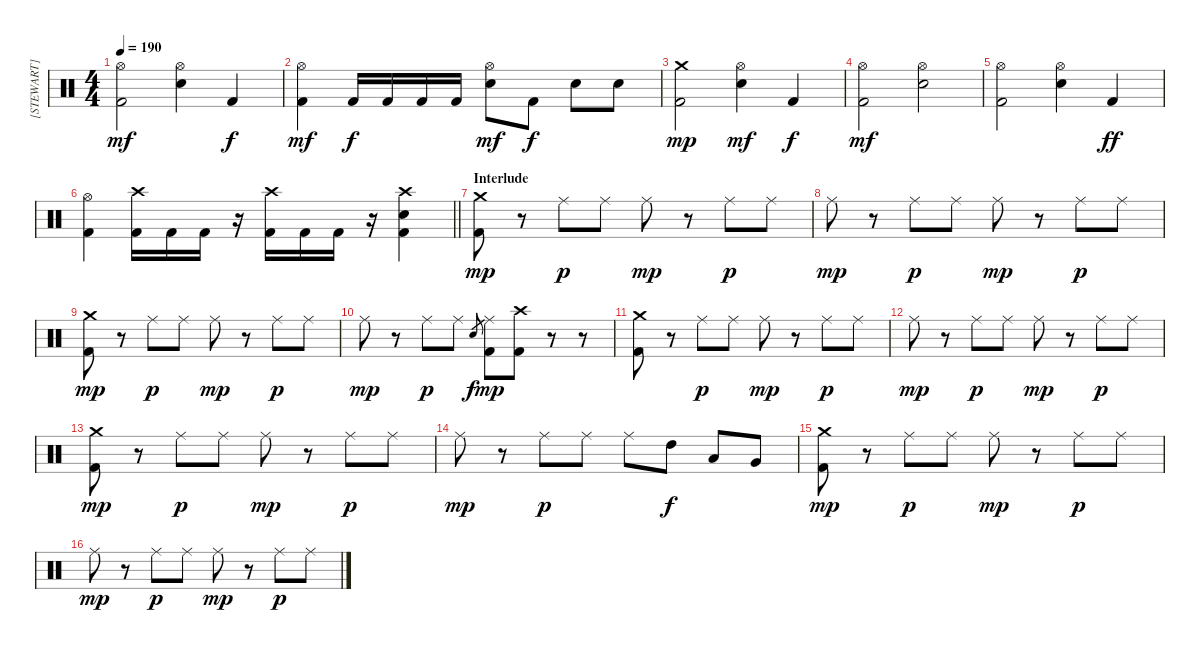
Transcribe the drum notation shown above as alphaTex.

\track ("[STEWART]" "[STEWART]") {instrument percussion}
\staff {score}
\articulation defaults
\ts (4 4)
\tempo 190
\clef neutral
\ks c
("Hi-Hat (open)" "Kick (hit) 2").2{dy mf} ("Hi-Hat (open)" "Electric Snare (hit)").4 "Kick (hit) 2".4{dy f} |
("Hi-Hat (open)" "Kick (hit) 2").4{dy mf} "Kick (hit) 2".16{dy f} "Kick (hit) 2".16 "Kick (hit) 2".16 "Kick (hit) 2".16 ("Hi-Hat (open)" "Electric Snare (hit)").8{dy mf} "Kick (hit) 2".8{dy f} "Electric Snare (hit)".8 "Electric Snare (hit)".8 |
("Crash medium (hit)" "Kick (hit) 2").2{dy mp} ("Hi-Hat (open)" "Electric Snare (hit)").4{dy mf} "Kick (hit) 2".4{dy f} |
("Hi-Hat (open)" "Kick (hit) 2").2{dy mf} ("Hi-Hat (open)" "Electric Snare (hit)").2 |
("Hi-Hat (open)" "Kick (hit) 2").2 ("Hi-Hat (open)" "Electric Snare (hit)").4 "Kick (hit) 2".4{dy ff} |
\barLineRight lightlight
("Hi-Hat (open)" "Kick (hit) 2").4 ("Crash high (hit)" "Kick (hit) 2").16 "Kick (hit) 2".16 "Kick (hit) 2".16 r.16 ("Crash high (hit)" "Kick (hit) 2").16 "Kick (hit) 2".16 "Kick (hit) 2".16 r.16 ("Crash high (hit)" "Electric Snare (hit)" "Kick (hit) 2").4 |
\section ("" "Interlude")
("Crash medium (hit)" "Kick (hit) 2").8{dy mp} r.8 "Ride (middle)".8{dy p} "Ride (middle)".8 "Ride (middle)".8{dy mp} r.8 "Ride (middle)".8{dy p} "Ride (middle)".8 |
"Ride (middle)".8{dy mp} r.8 "Ride (middle)".8{dy p} "Ride (middle)".8 "Ride (middle)".8{dy mp} r.8 "Ride (middle)".8{dy p} "Ride (middle)".8 |
("Crash medium (hit)" "Kick (hit) 2").8{dy mp} r.8 "Ride (middle)".8{dy p} "Ride (middle)".8 "Ride (middle)".8{dy mp} r.8 "Ride (middle)".8{dy p} "Ride (middle)".8 |
"Ride (middle)".8{dy mp} r.8 "Ride (middle)".8{dy p} "Ride (middle)".8 "Electric Snare (hit)".8{gr dy f} ("Ride (middle)" "Kick (hit) 2").8{dy mp} ("Crash high (hit)" "Kick (hit) 2").8 r.8 r.8 |
("Crash medium (hit)" "Kick (hit) 2").8 r.8 "Ride (middle)".8{dy p} "Ride (middle)".8 "Ride (middle)".8{dy mp} r.8 "Ride (middle)".8{dy p} "Ride (middle)".8 |
"Ride (middle)".8{dy mp} r.8 "Ride (middle)".8{dy p} "Ride (middle)".8 "Ride (middle)".8{dy mp} r.8 "Ride (middle)".8{dy p} "Ride (middle)".8 |
("Crash medium (hit)" "Kick (hit) 2").8{dy mp} r.8 "Ride (middle)".8{dy p} "Ride (middle)".8 "Ride (middle)".8{dy mp} r.8 "Ride (middle)".8{dy p} "Ride (middle)".8 |
"Ride (middle)".8{dy mp} r.8 "Ride (middle)".8{dy p} "Ride (middle)".8 "Ride (middle)".8 "High Tom (hit)".8{dy f} "Low Tom (hit)".8 "Very Low Tom (hit)".8 |
("Crash medium (hit)" "Kick (hit) 2").8{dy mp} r.8 "Ride (middle)".8{dy p} "Ride (middle)".8 "Ride (middle)".8{dy mp} r.8 "Ride (middle)".8{dy p} "Ride (middle)".8 |
"Ride (middle)".8{dy mp} r.8 "Ride (middle)".8{dy p} "Ride (middle)".8 "Ride (middle)".8{dy mp} r.8 "Ride (middle)".8{dy p} "Ride (middle)".8
